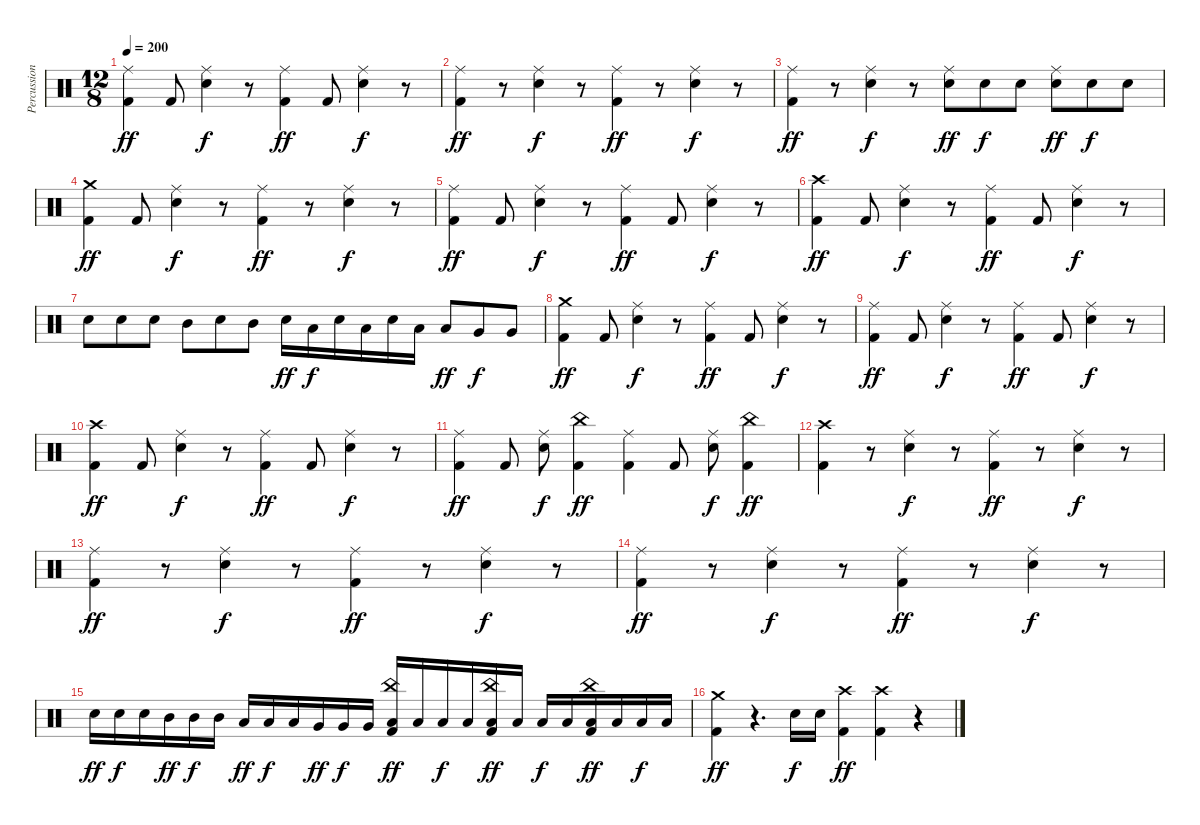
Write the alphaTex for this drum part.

\track ("Percussion" "Percussion") {instrument percussion}
\staff {score}
\articulation defaults
\ts (12 8)
\tempo 200
\clef neutral
\ks c
("Kick (hit) 2" "Ride (middle)").4{dy ff} "Kick (hit) 2".8 ("Snare (hit) 2" "Ride (middle)").4{dy f} r.8 ("Kick (hit) 2" "Ride (middle)").4{dy ff} "Kick (hit) 2".8 ("Snare (hit) 2" "Ride (middle)").4{dy f} r.8 |
("Kick (hit) 2" "Ride (middle)").4{dy ff} r.8 ("Snare (hit) 2" "Ride (middle)").4{dy f} r.8 ("Kick (hit) 2" "Ride (middle)").4{dy ff} r.8 ("Snare (hit) 2" "Ride (middle)").4{dy f} r.8 |
("Kick (hit) 2" "Ride (middle)").4{dy ff} r.8 ("Snare (hit) 2" "Ride (middle)").4{dy f} r.8 ("Snare (hit) 2" "Ride (middle)").8{dy ff} "Snare (hit) 2".8{dy f} "Snare (hit) 2".8 ("Snare (hit) 2" "Ride (middle)").8{dy ff} "Snare (hit) 2".8{dy f} "Snare (hit) 2".8 |
("Kick (hit) 2" "Crash medium (hit)").4{dy ff} "Kick (hit) 2".8 ("Snare (hit) 2" "Ride (middle)").4{dy f} r.8 ("Kick (hit) 2" "Ride (middle)").4{dy ff} r.8 ("Snare (hit) 2" "Ride (middle)").4{dy f} r.8 |
("Kick (hit) 2" "Ride (middle)").4{dy ff} "Kick (hit) 2".8 ("Snare (hit) 2" "Ride (middle)").4{dy f} r.8 ("Kick (hit) 2" "Ride (middle)").4{dy ff} "Kick (hit) 2".8 ("Snare (hit) 2" "Ride (middle)").4{dy f} r.8 |
("Kick (hit) 2" "Crash high (hit)").4{dy ff} "Kick (hit) 2".8 ("Snare (hit) 2" "Ride (middle)").4{dy f} r.8 ("Kick (hit) 2" "Ride (middle)").4{dy ff} "Kick (hit) 2".8 ("Snare (hit) 2" "Ride (middle)").4{dy f} r.8 |
"Snare (hit) 2".8 "Snare (hit) 2".8 "Snare (hit) 2".8 "Mid Tom (hit)".8 "Snare (hit) 2".8 "Mid Tom (hit)".8 "Snare (hit) 2".16{dy ff} "Low Tom (hit)".16{dy f} "Snare (hit) 2".16 "Low Tom (hit)".16 "Snare (hit) 2".16 "Low Tom (hit)".16 "Low Tom (hit)".8{dy ff} "Very Low Tom (hit)".8{dy f} "Very Low Tom (hit)".8 |
("Kick (hit) 2" "Crash medium (hit)").4{dy ff} "Kick (hit) 2".8 ("Snare (hit) 2" "Ride (middle)").4{dy f} r.8 ("Kick (hit) 2" "Ride (middle)").4{dy ff} "Kick (hit) 2".8 ("Snare (hit) 2" "Ride (middle)").4{dy f} r.8 |
("Kick (hit) 2" "Ride (middle)").4{dy ff} "Kick (hit) 2".8 ("Snare (hit) 2" "Ride (middle)").4{dy f} r.8 ("Kick (hit) 2" "Ride (middle)").4{dy ff} "Kick (hit) 2".8 ("Snare (hit) 2" "Ride (middle)").4{dy f} r.8 |
("Kick (hit) 2" "Crash high (hit)").4{dy ff} "Kick (hit) 2".8 ("Snare (hit) 2" "Ride (middle)").4{dy f} r.8 ("Kick (hit) 2" "Ride (middle)").4{dy ff} "Kick (hit) 2".8 ("Snare (hit) 2" "Ride (middle)").4{dy f} r.8 |
("Kick (hit) 2" "Ride (middle)").4{dy ff} "Kick (hit) 2".8 ("Snare (hit) 2" "Ride (middle)").8{dy f} ("Kick (hit) 2" "China (hit)").4{dy ff} ("Kick (hit) 2" "Ride (middle)").4 "Kick (hit) 2".8 ("Snare (hit) 2" "Ride (middle)").8{dy f} ("Kick (hit) 2" "China (hit)").4{dy ff} |
("Kick (hit) 2" "Crash high (hit)").4 r.8 ("Snare (hit) 2" "Ride (middle)").4{dy f} r.8 ("Kick (hit) 2" "Ride (middle)").4{dy ff} r.8 ("Snare (hit) 2" "Ride (middle)").4{dy f} r.8 |
("Kick (hit) 2" "Ride (middle)").4{dy ff} r.8 ("Snare (hit) 2" "Ride (middle)").4{dy f} r.8 ("Kick (hit) 2" "Ride (middle)").4{dy ff} r.8 ("Snare (hit) 2" "Ride (middle)").4{dy f} r.8 |
("Kick (hit) 2" "Ride (middle)").4{dy ff} r.8 ("Snare (hit) 2" "Ride (middle)").4{dy f} r.8 ("Kick (hit) 2" "Ride (middle)").4{dy ff} r.8 ("Snare (hit) 2" "Ride (middle)").4{dy f} r.8 |
"Snare (hit) 2".16{dy ff} "Snare (hit) 2".16{dy f} "Snare (hit) 2".16 "Mid Tom (hit)".16{dy ff} "Mid Tom (hit)".16{dy f} "Mid Tom (hit)".16 "Low Tom (hit)".16{dy ff} "Low Tom (hit)".16{dy f} "Low Tom (hit)".16 "Very Low Tom (hit)".16{dy ff} "Very Low Tom (hit)".16{dy f} "Very Low Tom (hit)".16 ("Kick (hit) 2" "Low Floor Tom (hit)" "China (hit)").16{dy ff} "Low Floor Tom (hit)".16 "Low Floor Tom (hit)".16{dy f} "Low Floor Tom (hit)".16 ("Kick (hit) 2" "Low Floor Tom (hit)" "China (hit)").16{dy ff} "Low Floor Tom (hit)".16 "Low Floor Tom (hit)".16{dy f} "Low Floor Tom (hit)".16 ("Kick (hit) 2" "Low Floor Tom (hit)" "China (hit)").16{dy ff} "Low Floor Tom (hit)".16 "Low Floor Tom (hit)".16{dy f} "Low Floor Tom (hit)".16 |
("Kick (hit) 2" "Crash medium (hit)").4{dy ff} r.4{d} "Snare (hit) 2".16{dy f} "Snare (hit) 2".16 ("Kick (hit) 2" "Crash high (hit)").4{dy ff} ("Kick (hit) 2" "Crash high (hit)").4 r.4
